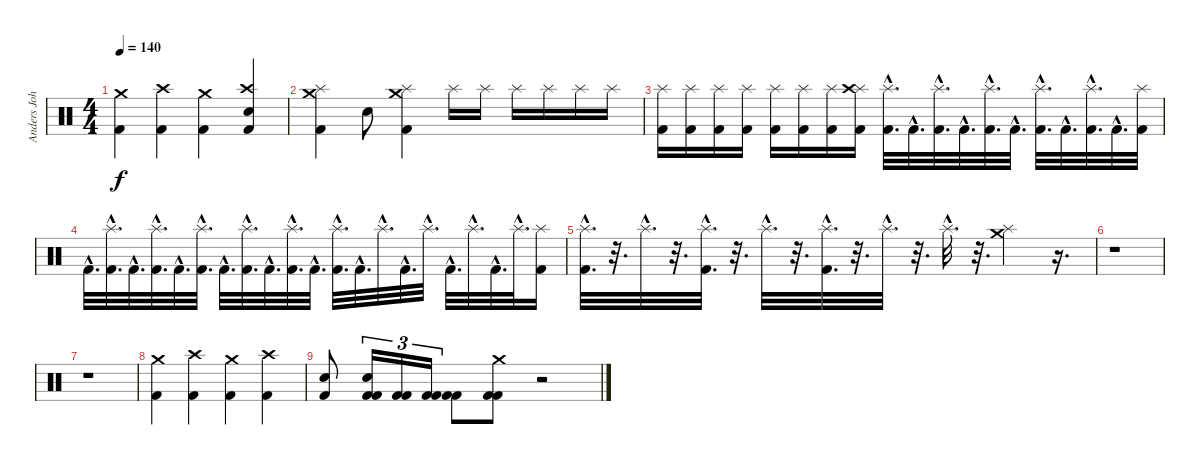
\track ("Anders Johansson :: Drums" "Anders Joh") {instrument percussion}
\staff {score}
\articulation defaults
\ts (4 4)
\tempo 140
\clef neutral
\ks c
("Crash medium (hit)" "Kick (hit) 2").4{dy f} ("Crash high (hit)" "Kick (hit) 2").4 ("Crash medium (hit)" "Kick (hit) 2").4 ("Crash high (hit)" "Snare (hit) 2" "Kick (hit) 2").4 |
("Crash medium (hit)" "Splash (hit)" "Kick (hit) 2").4 "Snare (hit) 2".8 ("Crash medium (hit)" "Splash (hit)" "Kick (hit) 2").4 "Splash (hit)".16{volume 6} "Splash (hit)".16 "Splash (hit)".16 "Splash (hit)".16 "Splash (hit)".16 "Splash (hit)".16 |
("Splash (hit)" "Kick (hit) 2").16 ("Splash (hit)" "Kick (hit) 2").16 ("Splash (hit)" "Kick (hit) 2").16{volume 13} ("Splash (hit)" "Kick (hit) 2").16 ("Splash (hit)" "Kick (hit) 2").16 ("Splash (hit)" "Kick (hit) 2").16 ("Splash (hit)" "Kick (hit) 2").16 ("Splash (hit)" "Crash high (hit)" "Kick (hit) 2").16 ("Splash (hit)"{hac} "Kick (hit) 2"{hac}).32{d} "Kick (hit) 2"{hac}.32{d} ("Splash (hit)"{hac} "Kick (hit) 2"{hac}).32{d} "Kick (hit) 2"{hac}.32{d} ("Splash (hit)"{hac} "Kick (hit) 2"{hac}).32{d} "Kick (hit) 2"{hac}.32{d} ("Splash (hit)"{hac} "Kick (hit) 2"{hac}).32{d} "Kick (hit) 2"{hac}.32{d} ("Splash (hit)"{hac} "Kick (hit) 2"{hac}).32{d} "Kick (hit) 2"{hac}.32{d} ("Splash (hit)" "Kick (hit) 2").32 |
"Kick (hit) 2"{hac}.32{d} ("Splash (hit)"{hac} "Kick (hit) 2"{hac}).32{d} "Kick (hit) 2"{hac}.32{d} ("Splash (hit)"{hac} "Kick (hit) 2"{hac}).32{d} "Kick (hit) 2"{hac}.32{d} ("Splash (hit)"{hac} "Kick (hit) 2"{hac}).32{d} "Kick (hit) 2"{hac}.32{d} ("Splash (hit)"{hac} "Kick (hit) 2"{hac}).32{d} "Kick (hit) 2"{hac}.32{d} ("Splash (hit)"{hac} "Kick (hit) 2"{hac}).32{d} "Kick (hit) 2"{hac}.32{d} ("Splash (hit)"{hac} "Kick (hit) 2"{hac}).32{d} "Kick (hit) 2"{hac}.32{d} "Splash (hit)"{hac}.32{d} "Kick (hit) 2"{hac}.32{d} "Splash (hit)"{hac}.32{d} "Kick (hit) 2"{hac}.32{d} "Splash (hit)"{hac}.32{d} "Kick (hit) 2"{hac}.32{d} "Splash (hit)"{hac}.32{d} ("Splash (hit)" "Kick (hit) 2").16 |
("Splash (hit)"{hac} "Kick (hit) 2"{hac}).32{d} r.32{d} "Splash (hit)"{hac}.32{d} r.32{d} ("Splash (hit)"{hac} "Kick (hit) 2"{hac}).32{d} r.32{d} "Splash (hit)"{hac}.32{d} r.32{d} ("Splash (hit)"{hac} "Kick (hit) 2"{hac}).32{d} r.32{d} "Splash (hit)"{hac}.32{d} r.32{d} "Splash (hit)"{hac}.32{d} r.32{d} ("Crash medium (hit)" "Splash (hit)").4 r.16{d} |
r.1 |
r.1 |
("Crash medium (hit)" "Kick (hit) 2").4 ("Crash high (hit)" "Kick (hit) 2").4 ("Crash medium (hit)" "Kick (hit) 2").4 ("Crash high (hit)" "Kick (hit) 2").4 |
("Snare (hit) 2" "Kick (hit) 2").8 ("Snare (hit) 2" "Kick (hit) 2" "Kick (hit) 2").16{tu (3 2)} ("Kick (hit) 2" "Kick (hit) 2").16{tu (3 2)} ("Kick (hit) 2" "Kick (hit) 2").16{tu (3 2)} ("Kick (hit) 2" "Kick (hit) 2").8 ("Crash medium (hit)" "Kick (hit) 2" "Kick (hit) 2").8 r.2
